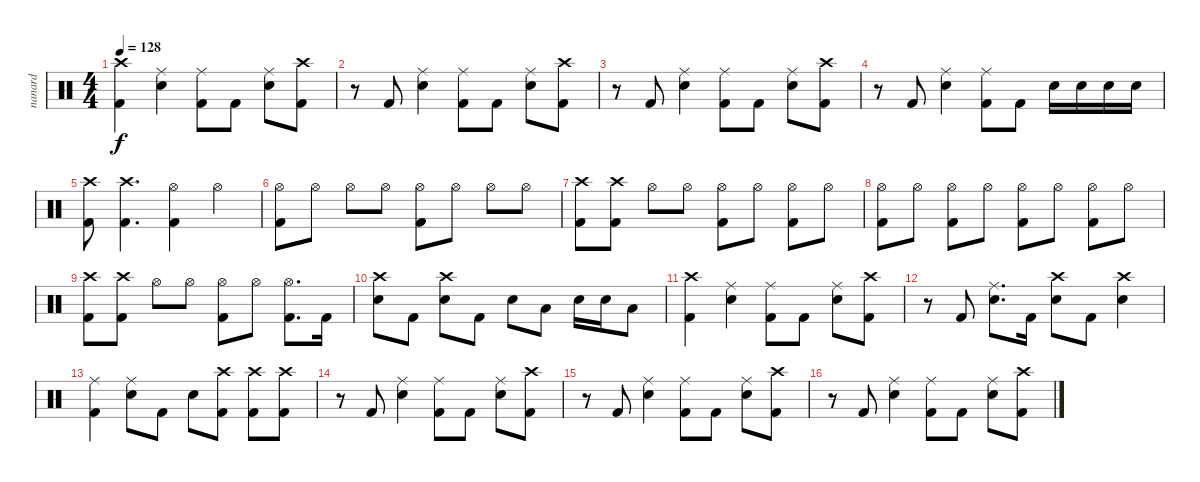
\track ("nanard" "nanard") {instrument percussion}
\staff {score}
\articulation defaults
\ts (4 4)
\tempo 128
\clef neutral
\ks c
("Crash high (hit)" "Kick (hit) 2").4{dy f} ("Ride (middle)" "Electric Snare (hit)").4 ("Ride (middle)" "Kick (hit) 2").8 "Kick (hit) 2".8 ("Ride (middle)" "Electric Snare (hit)").8 ("Crash high (hit)" "Kick (hit) 2").8 |
r.8 "Kick (hit) 2".8 ("Ride (middle)" "Electric Snare (hit)").4 ("Ride (middle)" "Kick (hit) 2").8 "Kick (hit) 2".8 ("Ride (middle)" "Electric Snare (hit)").8 ("Crash high (hit)" "Kick (hit) 2").8 |
r.8 "Kick (hit) 2".8 ("Ride (middle)" "Electric Snare (hit)").4 ("Ride (middle)" "Kick (hit) 2").8 "Kick (hit) 2".8 ("Ride (middle)" "Electric Snare (hit)").8 ("Crash high (hit)" "Kick (hit) 2").8 |
r.8 "Kick (hit) 2".8 ("Ride (middle)" "Electric Snare (hit)").4 ("Ride (middle)" "Kick (hit) 2").8 "Kick (hit) 2".8 "Electric Snare (hit)".16 "Electric Snare (hit)".16 "Electric Snare (hit)".16 "Electric Snare (hit)".16 |
("Crash high (hit)" "Kick (hit) 2").8 ("Crash high (hit)" "Kick (hit) 2").4{d} ("Hi-Hat (open)" "Kick (hit) 2").4 "Hi-Hat (open)".4 |
("Hi-Hat (open)" "Kick (hit) 2").8 "Hi-Hat (open)".8 "Hi-Hat (open)".8 "Hi-Hat (open)".8 ("Hi-Hat (open)" "Kick (hit) 2").8 "Hi-Hat (open)".8 "Hi-Hat (open)".8 "Hi-Hat (open)".8 |
("Crash high (hit)" "Kick (hit) 2").8 ("Crash high (hit)" "Kick (hit) 2").8 "Hi-Hat (open)".8 "Hi-Hat (open)".8 ("Hi-Hat (open)" "Kick (hit) 2").8 "Hi-Hat (open)".8 ("Hi-Hat (open)" "Kick (hit) 2").8 "Hi-Hat (open)".8 |
("Hi-Hat (open)" "Kick (hit) 2").8 "Hi-Hat (open)".8 ("Hi-Hat (open)" "Kick (hit) 2").8 "Hi-Hat (open)".8 ("Hi-Hat (open)" "Kick (hit) 2").8 "Hi-Hat (open)".8 ("Hi-Hat (open)" "Kick (hit) 2").8 "Hi-Hat (open)".8 |
("Crash high (hit)" "Kick (hit) 2").8 ("Crash high (hit)" "Kick (hit) 2").8 "Hi-Hat (open)".8 "Hi-Hat (open)".8 ("Hi-Hat (open)" "Kick (hit) 2").8 "Hi-Hat (open)".8 ("Hi-Hat (open)" "Kick (hit) 2").8{d} "Kick (hit) 2".16 |
("Crash high (hit)" "Electric Snare (hit)").8 "Kick (hit) 2".8 ("Crash high (hit)" "Electric Snare (hit)").8 "Kick (hit) 2".8 "Electric Snare (hit)".8 "Low Tom (hit)".8 "Electric Snare (hit)".16 "Electric Snare (hit)".16 "Low Tom (hit)".8 |
("Crash high (hit)" "Kick (hit) 2").4 ("Ride (middle)" "Electric Snare (hit)").4 ("Ride (middle)" "Kick (hit) 2").8 "Kick (hit) 2".8 ("Ride (middle)" "Electric Snare (hit)").8 ("Crash high (hit)" "Kick (hit) 2").8 |
r.8 "Kick (hit) 2".8 ("Ride (middle)" "Electric Snare (hit)").8{d} "Kick (hit) 2".16 ("Crash high (hit)" "Electric Snare (hit)").8 "Kick (hit) 2".8 ("Crash high (hit)" "Electric Snare (hit)").4 |
("Ride (middle)" "Kick (hit) 2").4 ("Ride (middle)" "Electric Snare (hit)").8 "Kick (hit) 2".8 "Electric Snare (hit)".8 ("Crash high (hit)" "Kick (hit) 2").8 ("Crash high (hit)" "Kick (hit) 2").8 ("Crash high (hit)" "Kick (hit) 2").8 |
r.8 "Kick (hit) 2".8 ("Ride (middle)" "Electric Snare (hit)").4 ("Ride (middle)" "Kick (hit) 2").8 "Kick (hit) 2".8 ("Ride (middle)" "Electric Snare (hit)").8 ("Crash high (hit)" "Kick (hit) 2").8 |
r.8 "Kick (hit) 2".8 ("Ride (middle)" "Electric Snare (hit)").4 ("Ride (middle)" "Kick (hit) 2").8 "Kick (hit) 2".8 ("Ride (middle)" "Electric Snare (hit)").8 ("Crash high (hit)" "Kick (hit) 2").8 |
r.8 "Kick (hit) 2".8 ("Ride (middle)" "Electric Snare (hit)").4 ("Ride (middle)" "Kick (hit) 2").8 "Kick (hit) 2".8 ("Ride (middle)" "Electric Snare (hit)").8 ("Crash high (hit)" "Kick (hit) 2").8
